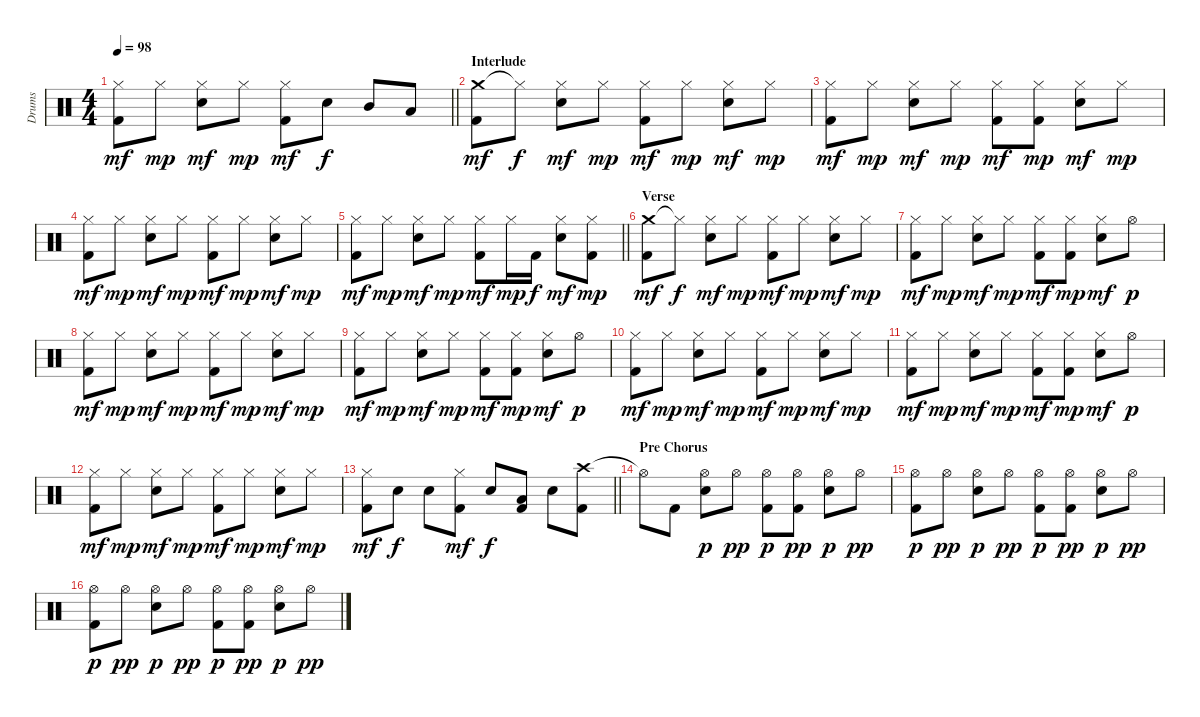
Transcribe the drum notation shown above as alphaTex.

\track ("Drums" "Drums") {instrument percussion}
\staff {score}
\articulation defaults
\ts (4 4)
\tempo 98
\clef neutral
\barLineRight lightlight
\ks c
("Hi-Hat (closed)" "Kick (hit) 2").8{dy mf} "Hi-Hat (closed)".8{dy mp} ("Hi-Hat (closed)" "Electric Snare (hit)").8{dy mf} "Hi-Hat (closed)".8{dy mp} ("Hi-Hat (closed)" "Kick (hit) 2").8{dy mf} "Electric Snare (hit)".8{dy f} "Mid Tom (hit)".8 "Low Tom (hit)".8 |
\section ("" "Interlude")
("Crash medium (hit)" "Kick (hit) 2").8{dy mf} "Hi-Hat (closed)"{t}.8{dy f} ("Hi-Hat (closed)" "Electric Snare (hit)").8{dy mf} "Hi-Hat (closed)".8{dy mp} ("Hi-Hat (closed)" "Kick (hit) 2").8{dy mf} "Hi-Hat (closed)".8{dy mp} ("Hi-Hat (closed)" "Electric Snare (hit)").8{dy mf} "Hi-Hat (closed)".8{dy mp} |
("Hi-Hat (closed)" "Kick (hit) 2").8{dy mf} "Hi-Hat (closed)".8{dy mp} ("Hi-Hat (closed)" "Electric Snare (hit)").8{dy mf} "Hi-Hat (closed)".8{dy mp} ("Hi-Hat (closed)" "Kick (hit) 2").8{dy mf} ("Hi-Hat (closed)" "Kick (hit) 2").8{dy mp} ("Hi-Hat (closed)" "Electric Snare (hit)").8{dy mf} "Hi-Hat (closed)".8{dy mp} |
("Hi-Hat (closed)" "Kick (hit) 2").8{dy mf} "Hi-Hat (closed)".8{dy mp} ("Hi-Hat (closed)" "Electric Snare (hit)").8{dy mf} "Hi-Hat (closed)".8{dy mp} ("Hi-Hat (closed)" "Kick (hit) 2").8{dy mf} "Hi-Hat (closed)".8{dy mp} ("Hi-Hat (closed)" "Electric Snare (hit)").8{dy mf} "Hi-Hat (closed)".8{dy mp} |
\barLineRight lightlight
("Hi-Hat (closed)" "Kick (hit) 2").8{dy mf} "Hi-Hat (closed)".8{dy mp} ("Hi-Hat (closed)" "Electric Snare (hit)").8{dy mf} "Hi-Hat (closed)".8{dy mp} ("Hi-Hat (closed)" "Kick (hit) 2").8{dy mf} "Hi-Hat (closed)".16{dy mp} "Kick (hit) 2".16{dy f} ("Hi-Hat (closed)" "Electric Snare (hit)").8{dy mf} ("Hi-Hat (closed)" "Kick (hit) 2").8{dy mp} |
\section ("" "Verse")
("Crash medium (hit)" "Kick (hit) 2").8{dy mf} "Hi-Hat (closed)"{t}.8{dy f} ("Hi-Hat (closed)" "Electric Snare (hit)").8{dy mf} "Hi-Hat (closed)".8{dy mp} ("Hi-Hat (closed)" "Kick (hit) 2").8{dy mf} "Hi-Hat (closed)".8{dy mp} ("Hi-Hat (closed)" "Electric Snare (hit)").8{dy mf} "Hi-Hat (closed)".8{dy mp} |
("Hi-Hat (closed)" "Kick (hit) 2").8{dy mf} "Hi-Hat (closed)".8{dy mp} ("Hi-Hat (closed)" "Electric Snare (hit)").8{dy mf} "Hi-Hat (closed)".8{dy mp} ("Hi-Hat (closed)" "Kick (hit) 2").8{dy mf} ("Hi-Hat (closed)" "Kick (hit) 2").8{dy mp} ("Hi-Hat (closed)" "Electric Snare (hit)").8{dy mf} "Hi-Hat (open)".8{dy p} |
("Hi-Hat (closed)" "Kick (hit) 2").8{dy mf} "Hi-Hat (closed)".8{dy mp} ("Hi-Hat (closed)" "Electric Snare (hit)").8{dy mf} "Hi-Hat (closed)".8{dy mp} ("Hi-Hat (closed)" "Kick (hit) 2").8{dy mf} "Hi-Hat (closed)".8{dy mp} ("Hi-Hat (closed)" "Electric Snare (hit)").8{dy mf} "Hi-Hat (closed)".8{dy mp} |
("Hi-Hat (closed)" "Kick (hit) 2").8{dy mf} "Hi-Hat (closed)".8{dy mp} ("Hi-Hat (closed)" "Electric Snare (hit)").8{dy mf} "Hi-Hat (closed)".8{dy mp} ("Hi-Hat (closed)" "Kick (hit) 2").8{dy mf} ("Hi-Hat (closed)" "Kick (hit) 2").8{dy mp} ("Hi-Hat (closed)" "Electric Snare (hit)").8{dy mf} "Hi-Hat (open)".8{dy p} |
("Hi-Hat (closed)" "Kick (hit) 2").8{dy mf} "Hi-Hat (closed)".8{dy mp} ("Hi-Hat (closed)" "Electric Snare (hit)").8{dy mf} "Hi-Hat (closed)".8{dy mp} ("Hi-Hat (closed)" "Kick (hit) 2").8{dy mf} "Hi-Hat (closed)".8{dy mp} ("Hi-Hat (closed)" "Electric Snare (hit)").8{dy mf} "Hi-Hat (closed)".8{dy mp} |
("Hi-Hat (closed)" "Kick (hit) 2").8{dy mf} "Hi-Hat (closed)".8{dy mp} ("Hi-Hat (closed)" "Electric Snare (hit)").8{dy mf} "Hi-Hat (closed)".8{dy mp} ("Hi-Hat (closed)" "Kick (hit) 2").8{dy mf} ("Hi-Hat (closed)" "Kick (hit) 2").8{dy mp} ("Hi-Hat (closed)" "Electric Snare (hit)").8{dy mf} "Hi-Hat (open)".8{dy p} |
("Hi-Hat (closed)" "Kick (hit) 2").8{dy mf} "Hi-Hat (closed)".8{dy mp} ("Hi-Hat (closed)" "Electric Snare (hit)").8{dy mf} "Hi-Hat (closed)".8{dy mp} ("Hi-Hat (closed)" "Kick (hit) 2").8{dy mf} "Hi-Hat (closed)".8{dy mp} ("Hi-Hat (closed)" "Electric Snare (hit)").8{dy mf} "Hi-Hat (closed)".8{dy mp} |
\barLineRight lightlight
("Hi-Hat (closed)" "Kick (hit) 2").8{dy mf} "Electric Snare (hit)".8{dy f} "Electric Snare (hit)".8 ("Hi-Hat (closed)" "Kick (hit) 2").8{dy mf} "Electric Snare (hit)".8{dy f} ("Low Tom (hit)" "Kick (hit) 2").8 "Electric Snare (hit)".8 ("Crash high (hit)" "Kick (hit) 2").8 |
\section ("" "Pre Chorus")
"Hi-Hat (open)"{t}.8 "Kick (hit) 2".8 ("Hi-Hat (open)" "Electric Snare (hit)").8{dy p} "Hi-Hat (open)".8{dy pp} ("Hi-Hat (open)" "Kick (hit) 2").8{dy p} ("Hi-Hat (open)" "Kick (hit) 2").8{dy pp} ("Hi-Hat (open)" "Electric Snare (hit)").8{dy p} "Hi-Hat (open)".8{dy pp} |
("Hi-Hat (open)" "Kick (hit) 2").8{dy p} "Hi-Hat (open)".8{dy pp} ("Hi-Hat (open)" "Electric Snare (hit)").8{dy p} "Hi-Hat (open)".8{dy pp} ("Hi-Hat (open)" "Kick (hit) 2").8{dy p} ("Hi-Hat (open)" "Kick (hit) 2").8{dy pp} ("Hi-Hat (open)" "Electric Snare (hit)").8{dy p} "Hi-Hat (open)".8{dy pp} |
("Hi-Hat (open)" "Kick (hit) 2").8{dy p} "Hi-Hat (open)".8{dy pp} ("Hi-Hat (open)" "Electric Snare (hit)").8{dy p} "Hi-Hat (open)".8{dy pp} ("Hi-Hat (open)" "Kick (hit) 2").8{dy p} ("Hi-Hat (open)" "Kick (hit) 2").8{dy pp} ("Hi-Hat (open)" "Electric Snare (hit)").8{dy p} "Hi-Hat (open)".8{dy pp}
